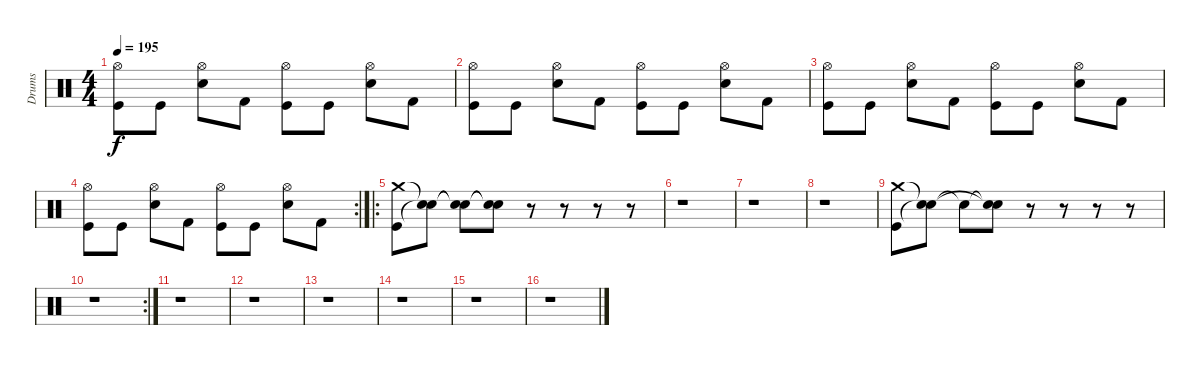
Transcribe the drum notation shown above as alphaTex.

\track ("Drums" "Drums") {instrument percussion}
\staff {score}
\articulation defaults
\ts (4 4)
\tempo 195
\clef neutral
\ks c
("Hi-Hat (open)" "Kick (hit)").8{dy f} "Kick (hit)".8 ("Hi-Hat (open)" "Electric Snare (hit)").8 "Kick (hit) 2".8 ("Hi-Hat (open)" "Kick (hit)").8 "Kick (hit)".8 ("Hi-Hat (open)" "Electric Snare (hit)").8 "Kick (hit) 2".8 |
("Hi-Hat (open)" "Kick (hit)").8 "Kick (hit)".8 ("Hi-Hat (open)" "Electric Snare (hit)").8 "Kick (hit) 2".8 ("Hi-Hat (open)" "Kick (hit)").8 "Kick (hit)".8 ("Hi-Hat (open)" "Electric Snare (hit)").8 "Kick (hit) 2".8 |
("Hi-Hat (open)" "Kick (hit)").8 "Kick (hit)".8 ("Hi-Hat (open)" "Electric Snare (hit)").8 "Kick (hit) 2".8 ("Hi-Hat (open)" "Kick (hit)").8 "Kick (hit)".8 ("Hi-Hat (open)" "Electric Snare (hit)").8 "Kick (hit) 2".8 |
\rc 2
("Hi-Hat (open)" "Kick (hit)").8 "Kick (hit)".8 ("Hi-Hat (open)" "Electric Snare (hit)").8 "Kick (hit) 2".8 ("Hi-Hat (open)" "Kick (hit)").8 "Kick (hit)".8 ("Hi-Hat (open)" "Electric Snare (hit)").8 "Kick (hit) 2".8 |
\ro
("Crash medium (hit)" "Kick (hit)").8 ("Snare (hit)"{t} "Snare (hit)"{t}).8 ("Snare (hit)"{t} "Snare (hit)"{t}).8 ("Snare (hit)"{t} "Snare (hit)"{t}).8 r.8 r.8 r.8 r.8 |
r.1 |
r.1 |
r.1 |
("Crash medium (hit)" "Kick (hit)").8 ("Snare (hit)"{t} "Snare (hit)"{t}).8 "Snare (hit)"{t}.8 ("Snare (hit)"{t} "Snare (hit)"{t}).8 r.8 r.8 r.8 r.8 |
\rc 2
r.1 |
r.1 |
r.1 |
r.1 |
r.1 |
r.1 |
r.1
